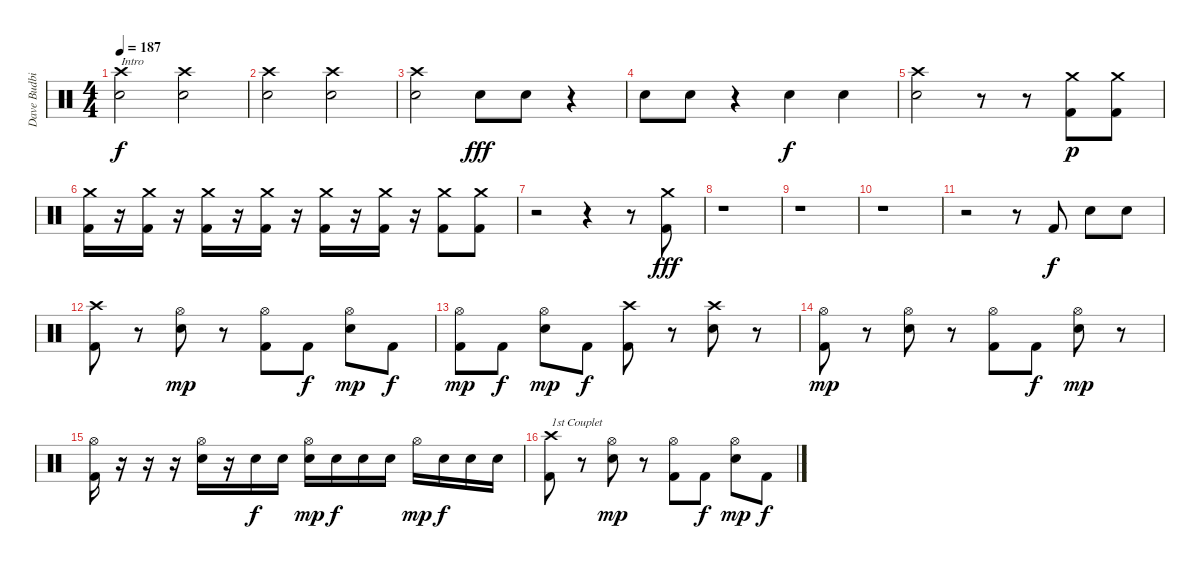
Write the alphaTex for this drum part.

\track ("Dave Budbill" "Dave Budbi") {instrument percussion}
\staff {score}
\articulation defaults
\ts (4 4)
\tempo 187
\clef neutral
\ks c
("Crash high (hit)" "Snare (hit) 2").2{txt "Intro" dy f} ("Crash high (hit)" "Snare (hit) 2").2 |
("Crash high (hit)" "Snare (hit) 2").2 ("Crash high (hit)" "Snare (hit) 2").2 |
("Crash high (hit)" "Snare (hit) 2").2 "Electric Snare (hit)".8{dy fff} "Electric Snare (hit)".8 r.4 |
"Snare (hit) 2".8 "Snare (hit) 2".8 r.4 "Snare (hit) 2".4{dy f} "Snare (hit) 2".4 |
("Crash high (hit)" "Snare (hit) 2").2 r.8 r.8 ("Crash medium (hit)" "Kick (hit) 2").8{dy p} ("Crash medium (hit)" "Kick (hit) 2").8 |
("Crash medium (hit)" "Kick (hit) 2").16 r.16 ("Crash medium (hit)" "Kick (hit) 2").16 r.16 ("Crash medium (hit)" "Kick (hit) 2").16 r.16 ("Crash medium (hit)" "Kick (hit) 2").16 r.16 ("Crash medium (hit)" "Kick (hit) 2").16 r.16 ("Crash medium (hit)" "Kick (hit) 2").16 r.16 ("Crash medium (hit)" "Kick (hit) 2").8 ("Crash medium (hit)" "Kick (hit) 2").8 |
r.2 r.4 r.8 ("Crash medium (hit)" "Kick (hit) 2").8{dy fff} |
r.1 |
r.1 |
r.1 |
r.2 r.8 "Kick (hit) 2".8{dy f} "Electric Snare (hit)".8 "Snare (hit) 2".8 |
("Crash high (hit)" "Kick (hit) 2").8 r.8 ("Hi-Hat (open)" "Snare (hit) 2").8{dy mp} r.8 ("Hi-Hat (open)" "Kick (hit) 2").8 "Kick (hit) 2".8{dy f} ("Hi-Hat (open)" "Snare (hit) 2").8{dy mp} "Kick (hit) 2".8{dy f} |
("Hi-Hat (open)" "Kick (hit) 2").8{dy mp} "Kick (hit) 2".8{dy f} ("Hi-Hat (open)" "Snare (hit) 2").8{dy mp} "Kick (hit) 2".8{dy f} ("Crash high (hit)" "Kick (hit) 2").8 r.8 ("Crash high (hit)" "Snare (hit) 2").8 r.8 |
("Hi-Hat (open)" "Kick (hit) 2").8{dy mp} r.8 ("Hi-Hat (open)" "Snare (hit) 2").8 r.8 ("Hi-Hat (open)" "Kick (hit) 2").8 "Kick (hit) 2".8{dy f} ("Hi-Hat (open)" "Snare (hit) 2").8{dy mp} r.8 |
("Hi-Hat (open)" "Kick (hit) 2").16 r.16 r.16 r.16 ("Hi-Hat (open)" "Snare (hit) 2").16 r.16 "Snare (hit) 2".16{dy f} "Snare (hit) 2".16 ("Hi-Hat (open)" "Snare (hit) 2").16{dy mp} "Snare (hit) 2".16{dy f} "Snare (hit) 2".16 "Snare (hit) 2".16 "Hi-Hat (open)".16{dy mp} "Snare (hit) 2".16{dy f} "Snare (hit) 2".16 "Snare (hit) 2".16 |
("Crash high (hit)" "Kick (hit) 2").8{txt "1st Couplet"} r.8 ("Hi-Hat (open)" "Snare (hit) 2").8{dy mp} r.8 ("Hi-Hat (open)" "Kick (hit) 2").8 "Kick (hit) 2".8{dy f} ("Hi-Hat (open)" "Snare (hit) 2").8{dy mp} "Kick (hit) 2".8{dy f}
